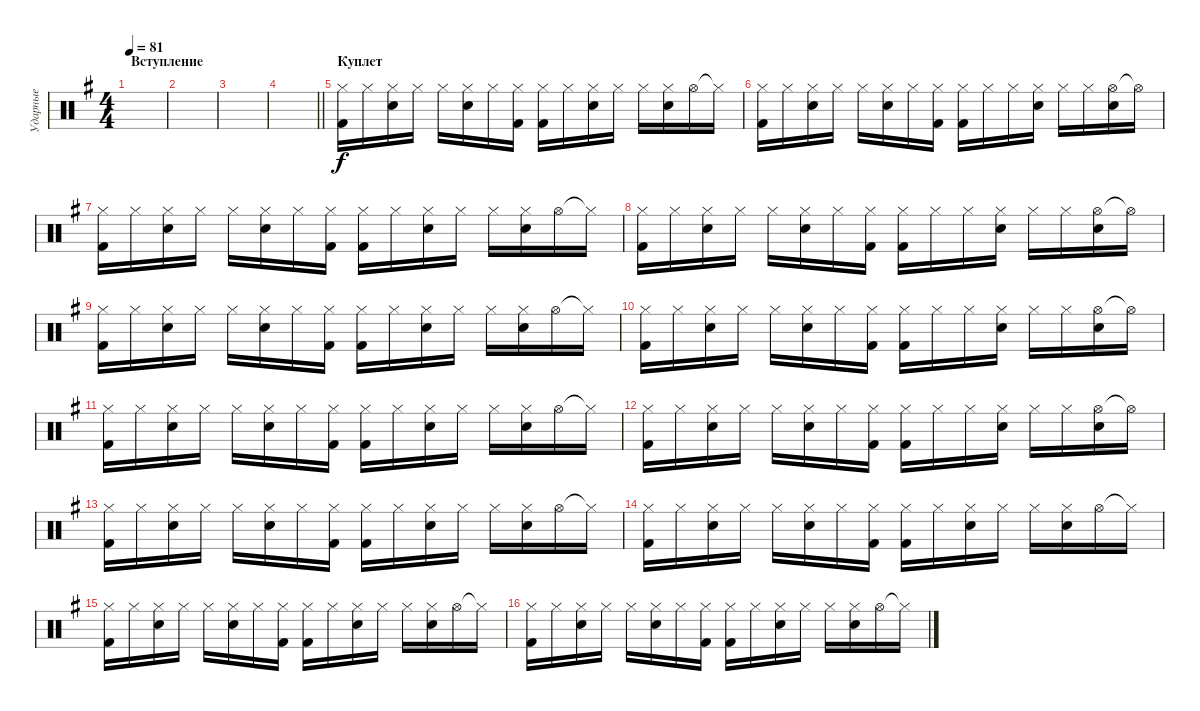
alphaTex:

\track ("Ударные" "Ударные") {instrument percussion}
\staff {score}
\articulation defaults
\ts (4 4)
\section ("" "Вступление")
\tempo 81
\clef neutral
\ks eminor
|
|
|
\barLineRight lightlight
|
\section ("" "Куплет")
("Hi-Hat (closed)" "Kick (hit) 2").16 "Hi-Hat (closed)".16 ("Hi-Hat (closed)" "Electric Snare (hit)").16 "Hi-Hat (closed)".16 "Hi-Hat (closed)".16 ("Hi-Hat (closed)" "Electric Snare (hit)").16 "Hi-Hat (closed)".16 ("Hi-Hat (closed)" "Kick (hit) 2").16 ("Hi-Hat (closed)" "Kick (hit) 2").16 "Hi-Hat (closed)".16 ("Hi-Hat (closed)" "Electric Snare (hit)").16 "Hi-Hat (closed)".16 "Hi-Hat (closed)".16 ("Hi-Hat (closed)" "Electric Snare (hit)").16 "Hi-Hat (open)".16 "Hi-Hat (closed)"{t}.16 |
("Hi-Hat (closed)" "Kick (hit) 2").16 "Hi-Hat (closed)".16 ("Hi-Hat (closed)" "Electric Snare (hit)").16 "Hi-Hat (closed)".16 "Hi-Hat (closed)".16 ("Hi-Hat (closed)" "Electric Snare (hit)").16 "Hi-Hat (closed)".16 ("Hi-Hat (closed)" "Kick (hit) 2").16 ("Hi-Hat (closed)" "Kick (hit) 2").16 "Hi-Hat (closed)".16 "Hi-Hat (closed)".16 ("Hi-Hat (closed)" "Electric Snare (hit)").16 "Hi-Hat (closed)".16 "Hi-Hat (closed)".16 ("Hi-Hat (open)" "Electric Snare (hit)").16 "Hi-Hat (open)"{t}.16 |
("Hi-Hat (closed)" "Kick (hit) 2").16 "Hi-Hat (closed)".16 ("Hi-Hat (closed)" "Electric Snare (hit)").16 "Hi-Hat (closed)".16 "Hi-Hat (closed)".16 ("Hi-Hat (closed)" "Electric Snare (hit)").16 "Hi-Hat (closed)".16 ("Hi-Hat (closed)" "Kick (hit) 2").16 ("Hi-Hat (closed)" "Kick (hit) 2").16 "Hi-Hat (closed)".16 ("Hi-Hat (closed)" "Electric Snare (hit)").16 "Hi-Hat (closed)".16 "Hi-Hat (closed)".16 ("Hi-Hat (closed)" "Electric Snare (hit)").16 "Hi-Hat (open)".16 "Hi-Hat (closed)"{t}.16 |
("Hi-Hat (closed)" "Kick (hit) 2").16 "Hi-Hat (closed)".16 ("Hi-Hat (closed)" "Electric Snare (hit)").16 "Hi-Hat (closed)".16 "Hi-Hat (closed)".16 ("Hi-Hat (closed)" "Electric Snare (hit)").16 "Hi-Hat (closed)".16 ("Hi-Hat (closed)" "Kick (hit) 2").16 ("Hi-Hat (closed)" "Kick (hit) 2").16 "Hi-Hat (closed)".16 "Hi-Hat (closed)".16 ("Hi-Hat (closed)" "Electric Snare (hit)").16 "Hi-Hat (closed)".16 "Hi-Hat (closed)".16 ("Hi-Hat (open)" "Electric Snare (hit)").16 "Hi-Hat (open)"{t}.16 |
("Hi-Hat (closed)" "Kick (hit) 2").16 "Hi-Hat (closed)".16 ("Hi-Hat (closed)" "Electric Snare (hit)").16 "Hi-Hat (closed)".16 "Hi-Hat (closed)".16 ("Hi-Hat (closed)" "Electric Snare (hit)").16 "Hi-Hat (closed)".16 ("Hi-Hat (closed)" "Kick (hit) 2").16 ("Hi-Hat (closed)" "Kick (hit) 2").16 "Hi-Hat (closed)".16 ("Hi-Hat (closed)" "Electric Snare (hit)").16 "Hi-Hat (closed)".16 "Hi-Hat (closed)".16 ("Hi-Hat (closed)" "Electric Snare (hit)").16 "Hi-Hat (open)".16 "Hi-Hat (closed)"{t}.16 |
("Hi-Hat (closed)" "Kick (hit) 2").16 "Hi-Hat (closed)".16 ("Hi-Hat (closed)" "Electric Snare (hit)").16 "Hi-Hat (closed)".16 "Hi-Hat (closed)".16 ("Hi-Hat (closed)" "Electric Snare (hit)").16 "Hi-Hat (closed)".16 ("Hi-Hat (closed)" "Kick (hit) 2").16 ("Hi-Hat (closed)" "Kick (hit) 2").16 "Hi-Hat (closed)".16 "Hi-Hat (closed)".16 ("Hi-Hat (closed)" "Electric Snare (hit)").16 "Hi-Hat (closed)".16 "Hi-Hat (closed)".16 ("Hi-Hat (open)" "Electric Snare (hit)").16 "Hi-Hat (open)"{t}.16 |
("Hi-Hat (closed)" "Kick (hit) 2").16 "Hi-Hat (closed)".16 ("Hi-Hat (closed)" "Electric Snare (hit)").16 "Hi-Hat (closed)".16 "Hi-Hat (closed)".16 ("Hi-Hat (closed)" "Electric Snare (hit)").16 "Hi-Hat (closed)".16 ("Hi-Hat (closed)" "Kick (hit) 2").16 ("Hi-Hat (closed)" "Kick (hit) 2").16 "Hi-Hat (closed)".16 ("Hi-Hat (closed)" "Electric Snare (hit)").16 "Hi-Hat (closed)".16 "Hi-Hat (closed)".16 ("Hi-Hat (closed)" "Electric Snare (hit)").16 "Hi-Hat (open)".16 "Hi-Hat (closed)"{t}.16 |
("Hi-Hat (closed)" "Kick (hit) 2").16 "Hi-Hat (closed)".16 ("Hi-Hat (closed)" "Electric Snare (hit)").16 "Hi-Hat (closed)".16 "Hi-Hat (closed)".16 ("Hi-Hat (closed)" "Electric Snare (hit)").16 "Hi-Hat (closed)".16 ("Hi-Hat (closed)" "Kick (hit) 2").16 ("Hi-Hat (closed)" "Kick (hit) 2").16 "Hi-Hat (closed)".16 "Hi-Hat (closed)".16 ("Hi-Hat (closed)" "Electric Snare (hit)").16 "Hi-Hat (closed)".16 "Hi-Hat (closed)".16 ("Hi-Hat (open)" "Electric Snare (hit)").16 "Hi-Hat (open)"{t}.16 |
("Hi-Hat (closed)" "Kick (hit) 2").16 "Hi-Hat (closed)".16 ("Hi-Hat (closed)" "Electric Snare (hit)").16 "Hi-Hat (closed)".16 "Hi-Hat (closed)".16 ("Hi-Hat (closed)" "Electric Snare (hit)").16 "Hi-Hat (closed)".16 ("Hi-Hat (closed)" "Kick (hit) 2").16 ("Hi-Hat (closed)" "Kick (hit) 2").16 "Hi-Hat (closed)".16 ("Hi-Hat (closed)" "Electric Snare (hit)").16 "Hi-Hat (closed)".16 "Hi-Hat (closed)".16 ("Hi-Hat (closed)" "Electric Snare (hit)").16 "Hi-Hat (open)".16 "Hi-Hat (closed)"{t}.16 |
("Hi-Hat (closed)" "Kick (hit) 2").16 "Hi-Hat (closed)".16 ("Hi-Hat (closed)" "Electric Snare (hit)").16 "Hi-Hat (closed)".16 "Hi-Hat (closed)".16 ("Hi-Hat (closed)" "Electric Snare (hit)").16 "Hi-Hat (closed)".16 ("Hi-Hat (closed)" "Kick (hit) 2").16 ("Hi-Hat (closed)" "Kick (hit) 2").16 "Hi-Hat (closed)".16 ("Hi-Hat (closed)" "Electric Snare (hit)").16 "Hi-Hat (closed)".16 "Hi-Hat (closed)".16 ("Hi-Hat (closed)" "Electric Snare (hit)").16 "Hi-Hat (open)".16 "Hi-Hat (closed)"{t}.16 |
("Hi-Hat (closed)" "Kick (hit) 2").16 "Hi-Hat (closed)".16 ("Hi-Hat (closed)" "Electric Snare (hit)").16 "Hi-Hat (closed)".16 "Hi-Hat (closed)".16 ("Hi-Hat (closed)" "Electric Snare (hit)").16 "Hi-Hat (closed)".16 ("Hi-Hat (closed)" "Kick (hit) 2").16 ("Hi-Hat (closed)" "Kick (hit) 2").16 "Hi-Hat (closed)".16 ("Hi-Hat (closed)" "Electric Snare (hit)").16 "Hi-Hat (closed)".16 "Hi-Hat (closed)".16 ("Hi-Hat (closed)" "Electric Snare (hit)").16 "Hi-Hat (open)".16 "Hi-Hat (closed)"{t}.16 |
("Hi-Hat (closed)" "Kick (hit) 2").16 "Hi-Hat (closed)".16 ("Hi-Hat (closed)" "Electric Snare (hit)").16 "Hi-Hat (closed)".16 "Hi-Hat (closed)".16 ("Hi-Hat (closed)" "Electric Snare (hit)").16 "Hi-Hat (closed)".16 ("Hi-Hat (closed)" "Kick (hit) 2").16 ("Hi-Hat (closed)" "Kick (hit) 2").16 "Hi-Hat (closed)".16 ("Hi-Hat (closed)" "Electric Snare (hit)").16 "Hi-Hat (closed)".16 "Hi-Hat (closed)".16 ("Hi-Hat (closed)" "Electric Snare (hit)").16 "Hi-Hat (open)".16 "Hi-Hat (closed)"{t}.16
